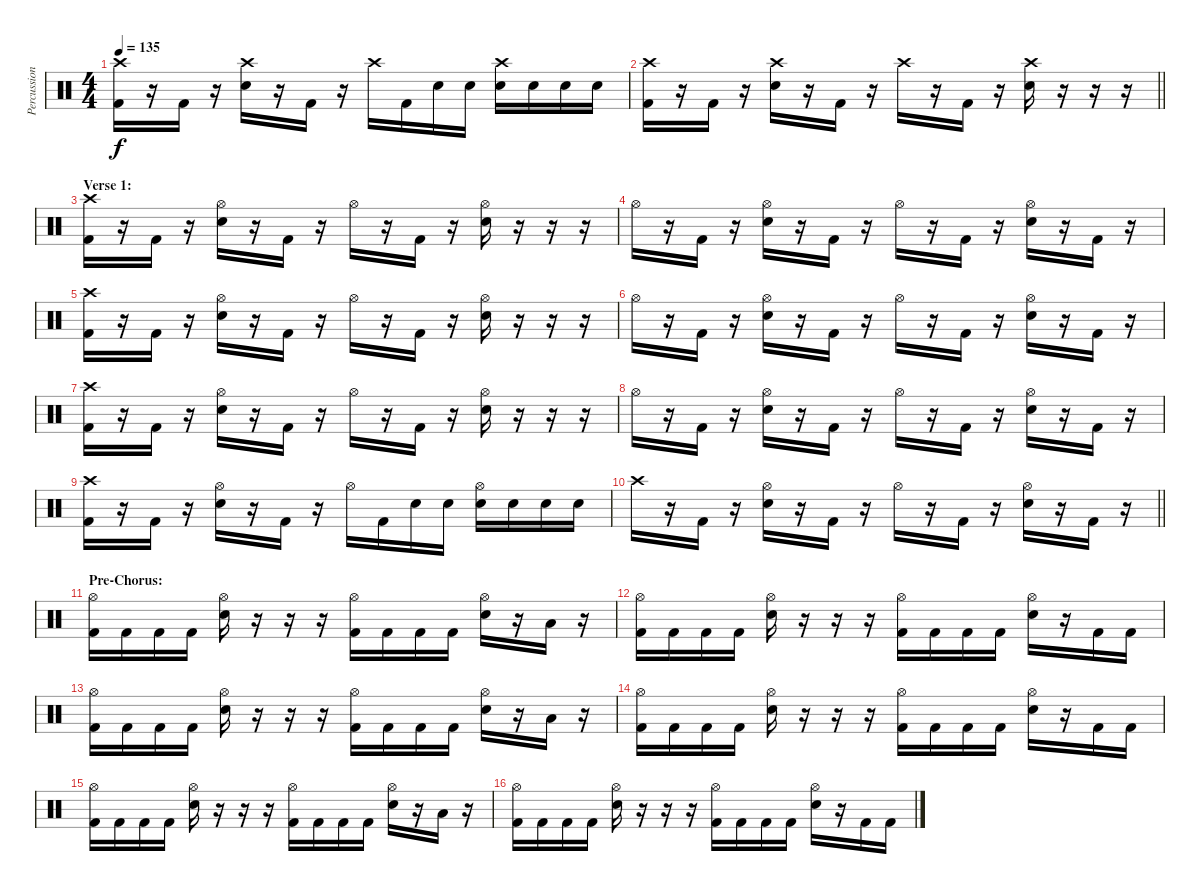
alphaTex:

\track ("Percussion" "Percussion") {instrument percussion}
\staff {score}
\articulation defaults
\ts (4 4)
\tempo 135
\clef neutral
\ks c
("Crash high (hit)" "Kick (hit) 2").16{dy f} r.16 "Kick (hit) 2".16 r.16 ("Crash high (hit)" "Electric Snare (hit)").16 r.16 "Kick (hit) 2".16 r.16 "Crash high (hit)".16 "Kick (hit) 2".16 "Electric Snare (hit)".16 "Electric Snare (hit)".16 ("Crash high (hit)" "Electric Snare (hit)").16 "Electric Snare (hit)".16 "Electric Snare (hit)".16 "Electric Snare (hit)".16 |
\barLineRight lightlight
("Crash high (hit)" "Kick (hit) 2").16 r.16 "Kick (hit) 2".16 r.16 ("Crash high (hit)" "Electric Snare (hit)").16 r.16 "Kick (hit) 2".16 r.16 "Crash high (hit)".16 r.16 "Kick (hit) 2".16 r.16 ("Crash high (hit)" "Electric Snare (hit)").16 r.16 r.16 r.16 |
\section ("" "Verse 1:")
("Crash high (hit)" "Kick (hit) 2").16 r.16 "Kick (hit) 2".16 r.16 ("Hi-Hat (open)" "Electric Snare (hit)").16 r.16 "Kick (hit) 2".16 r.16 "Hi-Hat (open)".16 r.16 "Kick (hit) 2".16 r.16 ("Hi-Hat (open)" "Electric Snare (hit)").16 r.16 r.16 r.16 |
"Hi-Hat (open)".16 r.16 "Kick (hit) 2".16 r.16 ("Hi-Hat (open)" "Electric Snare (hit)").16 r.16 "Kick (hit) 2".16 r.16 "Hi-Hat (open)".16 r.16 "Kick (hit) 2".16 r.16 ("Hi-Hat (open)" "Electric Snare (hit)").16 r.16 "Kick (hit) 2".16 r.16 |
("Crash high (hit)" "Kick (hit) 2").16 r.16 "Kick (hit) 2".16 r.16 ("Hi-Hat (open)" "Electric Snare (hit)").16 r.16 "Kick (hit) 2".16 r.16 "Hi-Hat (open)".16 r.16 "Kick (hit) 2".16 r.16 ("Hi-Hat (open)" "Electric Snare (hit)").16 r.16 r.16 r.16 |
"Hi-Hat (open)".16 r.16 "Kick (hit) 2".16 r.16 ("Hi-Hat (open)" "Electric Snare (hit)").16 r.16 "Kick (hit) 2".16 r.16 "Hi-Hat (open)".16 r.16 "Kick (hit) 2".16 r.16 ("Hi-Hat (open)" "Electric Snare (hit)").16 r.16 "Kick (hit) 2".16 r.16 |
("Crash high (hit)" "Kick (hit) 2").16 r.16 "Kick (hit) 2".16 r.16 ("Hi-Hat (open)" "Electric Snare (hit)").16 r.16 "Kick (hit) 2".16 r.16 "Hi-Hat (open)".16 r.16 "Kick (hit) 2".16 r.16 ("Hi-Hat (open)" "Electric Snare (hit)").16 r.16 r.16 r.16 |
"Hi-Hat (open)".16 r.16 "Kick (hit) 2".16 r.16 ("Hi-Hat (open)" "Electric Snare (hit)").16 r.16 "Kick (hit) 2".16 r.16 "Hi-Hat (open)".16 r.16 "Kick (hit) 2".16 r.16 ("Hi-Hat (open)" "Electric Snare (hit)").16 r.16 "Kick (hit) 2".16 r.16 |
("Crash high (hit)" "Kick (hit) 2").16 r.16 "Kick (hit) 2".16 r.16 ("Hi-Hat (open)" "Electric Snare (hit)").16 r.16 "Kick (hit) 2".16 r.16 "Hi-Hat (open)".16 "Kick (hit) 2".16 "Electric Snare (hit)".16 "Electric Snare (hit)".16 ("Hi-Hat (open)" "Electric Snare (hit)").16 "Electric Snare (hit)".16 "Electric Snare (hit)".16 "Electric Snare (hit)".16 |
\barLineRight lightlight "Crash high (hit)".16
r.16 "Kick (hit) 2".16 r.16 ("Hi-Hat (open)" "Electric Snare (hit)").16 r.16 "Kick (hit) 2".16 r.16 "Hi-Hat (open)".16 r.16 "Kick (hit) 2".16 r.16 ("Hi-Hat (open)" "Electric Snare (hit)").16 r.16 "Kick (hit) 2".16 r.16 |
\section ("" "Pre-Chorus:")
("Hi-Hat (open)" "Kick (hit) 2").16 "Kick (hit) 2".16 "Kick (hit) 2".16 "Kick (hit) 2".16 ("Hi-Hat (open)" "Electric Snare (hit)").16 r.16 r.16 r.16 ("Hi-Hat (open)" "Kick (hit) 2").16 "Kick (hit) 2".16 "Kick (hit) 2".16 "Kick (hit) 2".16 ("Hi-Hat (open)" "Electric Snare (hit)").16 r.16 "Low Floor Tom (hit)".16 r.16 |
("Hi-Hat (open)" "Kick (hit) 2").16 "Kick (hit) 2".16 "Kick (hit) 2".16 "Kick (hit) 2".16 ("Hi-Hat (open)" "Electric Snare (hit)").16 r.16 r.16 r.16 ("Hi-Hat (open)" "Kick (hit) 2").16 "Kick (hit) 2".16 "Kick (hit) 2".16 "Kick (hit) 2".16 ("Hi-Hat (open)" "Electric Snare (hit)").16 r.16 "Kick (hit) 2".16 "Kick (hit) 2".16 |
("Hi-Hat (open)" "Kick (hit) 2").16 "Kick (hit) 2".16 "Kick (hit) 2".16 "Kick (hit) 2".16 ("Hi-Hat (open)" "Electric Snare (hit)").16 r.16 r.16 r.16 ("Hi-Hat (open)" "Kick (hit) 2").16 "Kick (hit) 2".16 "Kick (hit) 2".16 "Kick (hit) 2".16 ("Hi-Hat (open)" "Electric Snare (hit)").16 r.16 "Low Floor Tom (hit)".16 r.16 |
("Hi-Hat (open)" "Kick (hit) 2").16 "Kick (hit) 2".16 "Kick (hit) 2".16 "Kick (hit) 2".16 ("Hi-Hat (open)" "Electric Snare (hit)").16 r.16 r.16 r.16 ("Hi-Hat (open)" "Kick (hit) 2").16 "Kick (hit) 2".16 "Kick (hit) 2".16 "Kick (hit) 2".16 ("Hi-Hat (open)" "Electric Snare (hit)").16 r.16 "Kick (hit) 2".16 "Kick (hit) 2".16 |
("Hi-Hat (open)" "Kick (hit) 2").16 "Kick (hit) 2".16 "Kick (hit) 2".16 "Kick (hit) 2".16 ("Hi-Hat (open)" "Electric Snare (hit)").16 r.16 r.16 r.16 ("Hi-Hat (open)" "Kick (hit) 2").16 "Kick (hit) 2".16 "Kick (hit) 2".16 "Kick (hit) 2".16 ("Hi-Hat (open)" "Electric Snare (hit)").16 r.16 "Low Floor Tom (hit)".16 r.16 |
("Hi-Hat (open)" "Kick (hit) 2").16 "Kick (hit) 2".16 "Kick (hit) 2".16 "Kick (hit) 2".16 ("Hi-Hat (open)" "Electric Snare (hit)").16 r.16 r.16 r.16 ("Hi-Hat (open)" "Kick (hit) 2").16 "Kick (hit) 2".16 "Kick (hit) 2".16 "Kick (hit) 2".16 ("Hi-Hat (open)" "Electric Snare (hit)").16 r.16 "Kick (hit) 2".16 "Kick (hit) 2".16
